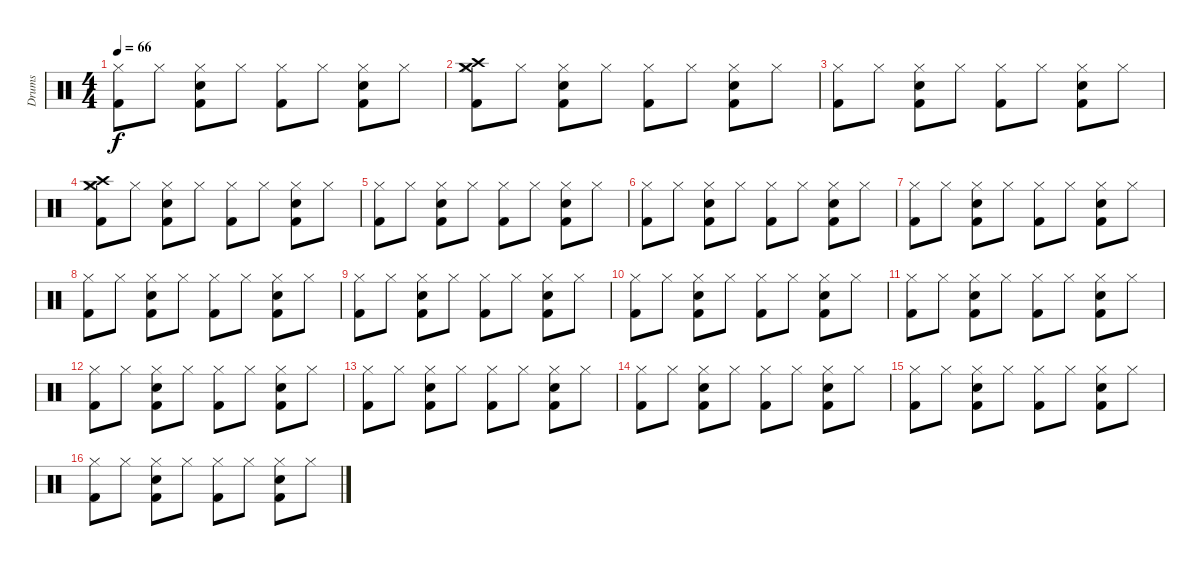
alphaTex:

\track ("Drums" "Drums") {instrument percussion}
\staff {score}
\articulation defaults
\ts (4 4)
\tempo 66
\clef neutral
\ks c
("Kick (hit) 2" "Hi-Hat (closed)").8{dy f} "Hi-Hat (closed)".8 ("Kick (hit) 2" "Hi-Hat (closed)" "Snare (hit) 2").8 "Hi-Hat (closed)".8 ("Kick (hit) 2" "Hi-Hat (closed)").8 "Hi-Hat (closed)".8 ("Kick (hit) 2" "Hi-Hat (closed)" "Snare (hit) 2").8 "Hi-Hat (closed)".8 |
("Kick (hit) 2" "Hi-Hat (closed)" "Crash medium (hit)" "Crash high (hit)").8 "Hi-Hat (closed)".8 ("Kick (hit) 2" "Hi-Hat (closed)" "Snare (hit) 2").8 "Hi-Hat (closed)".8 ("Kick (hit) 2" "Hi-Hat (closed)").8 "Hi-Hat (closed)".8 ("Kick (hit) 2" "Hi-Hat (closed)" "Snare (hit) 2").8 "Hi-Hat (closed)".8 |
("Kick (hit) 2" "Hi-Hat (closed)").8 "Hi-Hat (closed)".8 ("Kick (hit) 2" "Hi-Hat (closed)" "Snare (hit) 2").8 "Hi-Hat (closed)".8 ("Kick (hit) 2" "Hi-Hat (closed)").8 "Hi-Hat (closed)".8 ("Kick (hit) 2" "Hi-Hat (closed)" "Snare (hit) 2").8 "Hi-Hat (closed)".8 |
("Kick (hit) 2" "Hi-Hat (closed)" "Crash medium (hit)" "Crash high (hit)").8 "Hi-Hat (closed)".8 ("Kick (hit) 2" "Hi-Hat (closed)" "Snare (hit) 2").8 "Hi-Hat (closed)".8 ("Kick (hit) 2" "Hi-Hat (closed)").8 "Hi-Hat (closed)".8 ("Kick (hit) 2" "Hi-Hat (closed)" "Snare (hit) 2").8 "Hi-Hat (closed)".8 |
("Kick (hit) 2" "Hi-Hat (closed)").8 "Hi-Hat (closed)".8 ("Kick (hit) 2" "Hi-Hat (closed)" "Snare (hit) 2").8 "Hi-Hat (closed)".8 ("Kick (hit) 2" "Hi-Hat (closed)").8 "Hi-Hat (closed)".8 ("Kick (hit) 2" "Hi-Hat (closed)" "Snare (hit) 2").8 "Hi-Hat (closed)".8 |
("Kick (hit) 2" "Hi-Hat (closed)").8 "Hi-Hat (closed)".8 ("Kick (hit) 2" "Hi-Hat (closed)" "Snare (hit) 2").8 "Hi-Hat (closed)".8 ("Kick (hit) 2" "Hi-Hat (closed)").8 "Hi-Hat (closed)".8 ("Kick (hit) 2" "Hi-Hat (closed)" "Snare (hit) 2").8 "Hi-Hat (closed)".8 |
("Kick (hit) 2" "Hi-Hat (closed)").8 "Hi-Hat (closed)".8 ("Kick (hit) 2" "Hi-Hat (closed)" "Snare (hit) 2").8 "Hi-Hat (closed)".8 ("Kick (hit) 2" "Hi-Hat (closed)").8 "Hi-Hat (closed)".8 ("Kick (hit) 2" "Hi-Hat (closed)" "Snare (hit) 2").8 "Hi-Hat (closed)".8 |
("Kick (hit) 2" "Hi-Hat (closed)").8 "Hi-Hat (closed)".8 ("Kick (hit) 2" "Hi-Hat (closed)" "Snare (hit) 2").8 "Hi-Hat (closed)".8 ("Kick (hit) 2" "Hi-Hat (closed)").8 "Hi-Hat (closed)".8 ("Kick (hit) 2" "Hi-Hat (closed)" "Snare (hit) 2").8 "Hi-Hat (closed)".8 |
("Kick (hit) 2" "Hi-Hat (closed)").8 "Hi-Hat (closed)".8 ("Kick (hit) 2" "Hi-Hat (closed)" "Snare (hit) 2").8 "Hi-Hat (closed)".8 ("Kick (hit) 2" "Hi-Hat (closed)").8 "Hi-Hat (closed)".8 ("Kick (hit) 2" "Hi-Hat (closed)" "Snare (hit) 2").8 "Hi-Hat (closed)".8 |
("Kick (hit) 2" "Hi-Hat (closed)").8 "Hi-Hat (closed)".8 ("Kick (hit) 2" "Hi-Hat (closed)" "Snare (hit) 2").8 "Hi-Hat (closed)".8 ("Kick (hit) 2" "Hi-Hat (closed)").8 "Hi-Hat (closed)".8 ("Kick (hit) 2" "Hi-Hat (closed)" "Snare (hit) 2").8 "Hi-Hat (closed)".8 |
("Kick (hit) 2" "Hi-Hat (closed)").8 "Hi-Hat (closed)".8 ("Kick (hit) 2" "Hi-Hat (closed)" "Snare (hit) 2").8 "Hi-Hat (closed)".8 ("Kick (hit) 2" "Hi-Hat (closed)").8 "Hi-Hat (closed)".8 ("Kick (hit) 2" "Hi-Hat (closed)" "Snare (hit) 2").8 "Hi-Hat (closed)".8 |
("Kick (hit) 2" "Hi-Hat (closed)").8 "Hi-Hat (closed)".8 ("Kick (hit) 2" "Hi-Hat (closed)" "Snare (hit) 2").8 "Hi-Hat (closed)".8 ("Kick (hit) 2" "Hi-Hat (closed)").8 "Hi-Hat (closed)".8 ("Kick (hit) 2" "Hi-Hat (closed)" "Snare (hit) 2").8 "Hi-Hat (closed)".8 |
("Kick (hit) 2" "Hi-Hat (closed)").8 "Hi-Hat (closed)".8 ("Kick (hit) 2" "Hi-Hat (closed)" "Snare (hit) 2").8 "Hi-Hat (closed)".8 ("Kick (hit) 2" "Hi-Hat (closed)").8 "Hi-Hat (closed)".8 ("Kick (hit) 2" "Hi-Hat (closed)" "Snare (hit) 2").8 "Hi-Hat (closed)".8 |
("Kick (hit) 2" "Hi-Hat (closed)").8 "Hi-Hat (closed)".8 ("Kick (hit) 2" "Hi-Hat (closed)" "Snare (hit) 2").8 "Hi-Hat (closed)".8 ("Kick (hit) 2" "Hi-Hat (closed)").8 "Hi-Hat (closed)".8 ("Kick (hit) 2" "Hi-Hat (closed)" "Snare (hit) 2").8 "Hi-Hat (closed)".8 |
("Kick (hit) 2" "Hi-Hat (closed)").8 "Hi-Hat (closed)".8 ("Kick (hit) 2" "Hi-Hat (closed)" "Snare (hit) 2").8 "Hi-Hat (closed)".8 ("Kick (hit) 2" "Hi-Hat (closed)").8 "Hi-Hat (closed)".8 ("Kick (hit) 2" "Hi-Hat (closed)" "Snare (hit) 2").8 "Hi-Hat (closed)".8 |
("Kick (hit) 2" "Hi-Hat (closed)").8 "Hi-Hat (closed)".8 ("Kick (hit) 2" "Hi-Hat (closed)" "Snare (hit) 2").8 "Hi-Hat (closed)".8 ("Kick (hit) 2" "Hi-Hat (closed)").8 "Hi-Hat (closed)".8 ("Kick (hit) 2" "Hi-Hat (closed)" "Snare (hit) 2").8 "Hi-Hat (closed)".8
